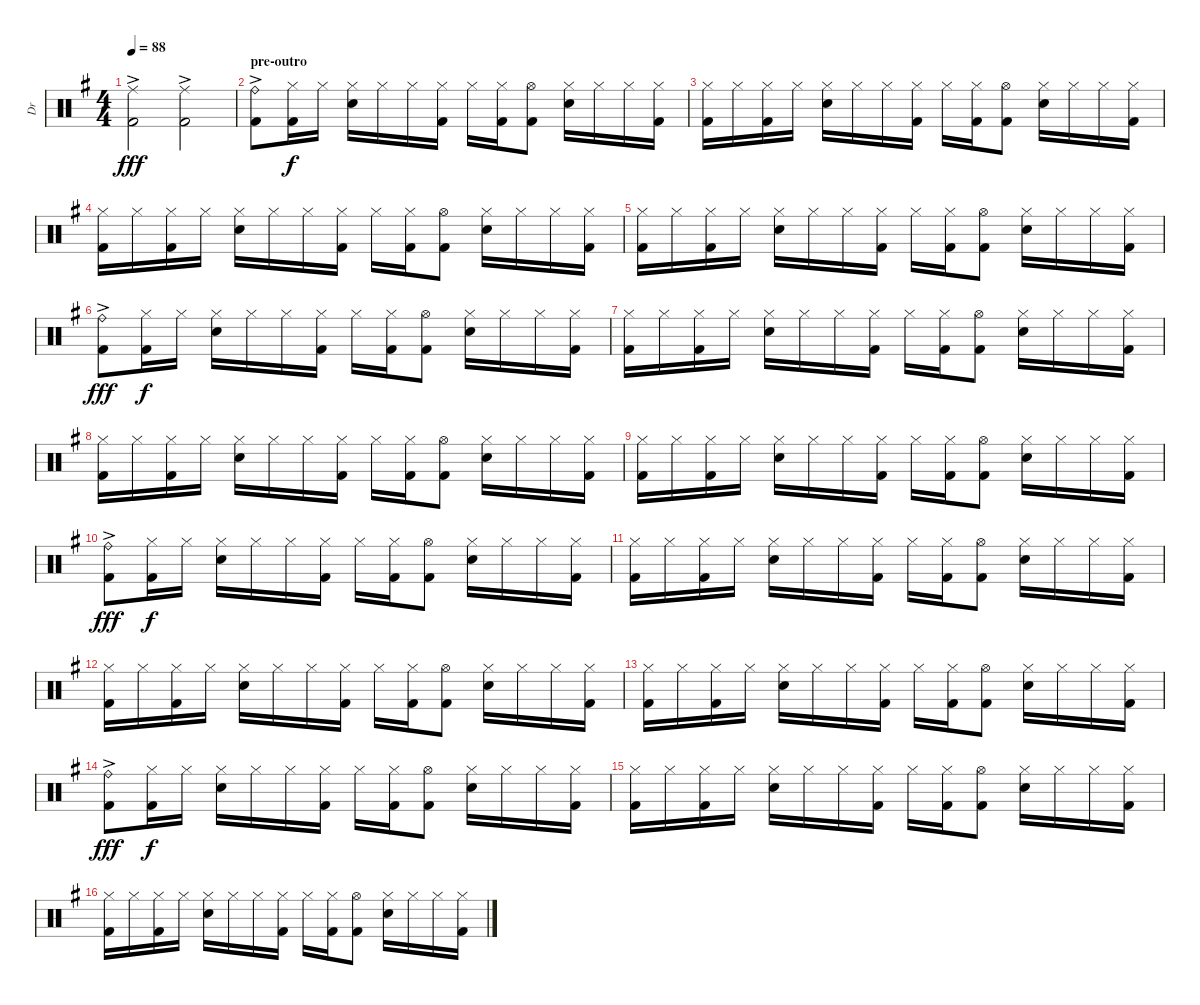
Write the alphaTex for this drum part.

\track ("Dr" "Dr") {instrument percussion}
\staff {score}
\articulation defaults
\ts (4 4)
\tempo 88
\clef neutral
\ks g
("Ride (middle)"{ac} "Kick (hit) 2"{ac}).2{dy fff} ("Ride (middle)"{ac} "Kick (hit) 2"{ac}).2 |
\section ("" "pre-outro")
("Ride (bell)"{ac} "Kick (hit) 2"{ac}).8 ("Hi-Hat (closed)" "Kick (hit) 2").16{dy f} "Hi-Hat (closed)".16 ("Hi-Hat (closed)" "Electric Snare (hit)").16 "Hi-Hat (closed)".16 "Hi-Hat (closed)".16 ("Hi-Hat (closed)" "Kick (hit) 2").16 "Hi-Hat (closed)".16 ("Hi-Hat (closed)" "Kick (hit) 2").16 ("Hi-Hat (open)" "Kick (hit) 2").8 ("Hi-Hat (closed)" "Electric Snare (hit)").16 "Hi-Hat (closed)".16 "Hi-Hat (closed)".16 ("Hi-Hat (closed)" "Kick (hit) 2").16 |
("Hi-Hat (closed)" "Kick (hit) 2").16 "Hi-Hat (closed)".16 ("Hi-Hat (closed)" "Kick (hit) 2").16 "Hi-Hat (closed)".16 ("Hi-Hat (closed)" "Electric Snare (hit)").16 "Hi-Hat (closed)".16 "Hi-Hat (closed)".16 ("Hi-Hat (closed)" "Kick (hit) 2").16 "Hi-Hat (closed)".16 ("Hi-Hat (closed)" "Kick (hit) 2").16 ("Hi-Hat (open)" "Kick (hit) 2").8 ("Hi-Hat (closed)" "Electric Snare (hit)").16 "Hi-Hat (closed)".16 "Hi-Hat (closed)".16 ("Hi-Hat (closed)" "Kick (hit) 2").16 |
("Hi-Hat (closed)" "Kick (hit) 2").16 "Hi-Hat (closed)".16 ("Hi-Hat (closed)" "Kick (hit) 2").16 "Hi-Hat (closed)".16 ("Hi-Hat (closed)" "Electric Snare (hit)").16 "Hi-Hat (closed)".16 "Hi-Hat (closed)".16 ("Hi-Hat (closed)" "Kick (hit) 2").16 "Hi-Hat (closed)".16 ("Hi-Hat (closed)" "Kick (hit) 2").16 ("Hi-Hat (open)" "Kick (hit) 2").8 ("Hi-Hat (closed)" "Electric Snare (hit)").16 "Hi-Hat (closed)".16 "Hi-Hat (closed)".16 ("Hi-Hat (closed)" "Kick (hit) 2").16 |
("Hi-Hat (closed)" "Kick (hit) 2").16 "Hi-Hat (closed)".16 ("Hi-Hat (closed)" "Kick (hit) 2").16 "Hi-Hat (closed)".16 ("Hi-Hat (closed)" "Electric Snare (hit)").16 "Hi-Hat (closed)".16 "Hi-Hat (closed)".16 ("Hi-Hat (closed)" "Kick (hit) 2").16 "Hi-Hat (closed)".16 ("Hi-Hat (closed)" "Kick (hit) 2").16 ("Hi-Hat (open)" "Kick (hit) 2").8 ("Hi-Hat (closed)" "Electric Snare (hit)").16 "Hi-Hat (closed)".16 "Hi-Hat (closed)".16 ("Hi-Hat (closed)" "Kick (hit) 2").16 |
("Ride (bell)"{ac} "Kick (hit) 2"{ac}).8{dy fff} ("Hi-Hat (closed)" "Kick (hit) 2").16{dy f} "Hi-Hat (closed)".16 ("Hi-Hat (closed)" "Electric Snare (hit)").16 "Hi-Hat (closed)".16 "Hi-Hat (closed)".16 ("Hi-Hat (closed)" "Kick (hit) 2").16 "Hi-Hat (closed)".16 ("Hi-Hat (closed)" "Kick (hit) 2").16 ("Hi-Hat (open)" "Kick (hit) 2").8 ("Hi-Hat (closed)" "Electric Snare (hit)").16 "Hi-Hat (closed)".16 "Hi-Hat (closed)".16 ("Hi-Hat (closed)" "Kick (hit) 2").16 |
("Hi-Hat (closed)" "Kick (hit) 2").16 "Hi-Hat (closed)".16 ("Hi-Hat (closed)" "Kick (hit) 2").16 "Hi-Hat (closed)".16 ("Hi-Hat (closed)" "Electric Snare (hit)").16 "Hi-Hat (closed)".16 "Hi-Hat (closed)".16 ("Hi-Hat (closed)" "Kick (hit) 2").16 "Hi-Hat (closed)".16 ("Hi-Hat (closed)" "Kick (hit) 2").16 ("Hi-Hat (open)" "Kick (hit) 2").8 ("Hi-Hat (closed)" "Electric Snare (hit)").16 "Hi-Hat (closed)".16 "Hi-Hat (closed)".16 ("Hi-Hat (closed)" "Kick (hit) 2").16 |
("Hi-Hat (closed)" "Kick (hit) 2").16 "Hi-Hat (closed)".16 ("Hi-Hat (closed)" "Kick (hit) 2").16 "Hi-Hat (closed)".16 ("Hi-Hat (closed)" "Electric Snare (hit)").16 "Hi-Hat (closed)".16 "Hi-Hat (closed)".16 ("Hi-Hat (closed)" "Kick (hit) 2").16 "Hi-Hat (closed)".16 ("Hi-Hat (closed)" "Kick (hit) 2").16 ("Hi-Hat (open)" "Kick (hit) 2").8 ("Hi-Hat (closed)" "Electric Snare (hit)").16 "Hi-Hat (closed)".16 "Hi-Hat (closed)".16 ("Hi-Hat (closed)" "Kick (hit) 2").16 |
("Hi-Hat (closed)" "Kick (hit) 2").16 "Hi-Hat (closed)".16 ("Hi-Hat (closed)" "Kick (hit) 2").16 "Hi-Hat (closed)".16 ("Hi-Hat (closed)" "Electric Snare (hit)").16 "Hi-Hat (closed)".16 "Hi-Hat (closed)".16 ("Hi-Hat (closed)" "Kick (hit) 2").16 "Hi-Hat (closed)".16 ("Hi-Hat (closed)" "Kick (hit) 2").16 ("Hi-Hat (open)" "Kick (hit) 2").8 ("Hi-Hat (closed)" "Electric Snare (hit)").16 "Hi-Hat (closed)".16 "Hi-Hat (closed)".16 ("Hi-Hat (closed)" "Kick (hit) 2").16 |
("Ride (bell)"{ac} "Kick (hit) 2"{ac}).8{dy fff} ("Hi-Hat (closed)" "Kick (hit) 2").16{dy f} "Hi-Hat (closed)".16 ("Hi-Hat (closed)" "Electric Snare (hit)").16 "Hi-Hat (closed)".16 "Hi-Hat (closed)".16 ("Hi-Hat (closed)" "Kick (hit) 2").16 "Hi-Hat (closed)".16 ("Hi-Hat (closed)" "Kick (hit) 2").16 ("Hi-Hat (open)" "Kick (hit) 2").8 ("Hi-Hat (closed)" "Electric Snare (hit)").16 "Hi-Hat (closed)".16 "Hi-Hat (closed)".16 ("Hi-Hat (closed)" "Kick (hit) 2").16 |
("Hi-Hat (closed)" "Kick (hit) 2").16 "Hi-Hat (closed)".16 ("Hi-Hat (closed)" "Kick (hit) 2").16 "Hi-Hat (closed)".16 ("Hi-Hat (closed)" "Electric Snare (hit)").16 "Hi-Hat (closed)".16 "Hi-Hat (closed)".16 ("Hi-Hat (closed)" "Kick (hit) 2").16 "Hi-Hat (closed)".16 ("Hi-Hat (closed)" "Kick (hit) 2").16 ("Hi-Hat (open)" "Kick (hit) 2").8 ("Hi-Hat (closed)" "Electric Snare (hit)").16 "Hi-Hat (closed)".16 "Hi-Hat (closed)".16 ("Hi-Hat (closed)" "Kick (hit) 2").16 |
("Hi-Hat (closed)" "Kick (hit) 2").16 "Hi-Hat (closed)".16 ("Hi-Hat (closed)" "Kick (hit) 2").16 "Hi-Hat (closed)".16 ("Hi-Hat (closed)" "Electric Snare (hit)").16 "Hi-Hat (closed)".16 "Hi-Hat (closed)".16 ("Hi-Hat (closed)" "Kick (hit) 2").16 "Hi-Hat (closed)".16 ("Hi-Hat (closed)" "Kick (hit) 2").16 ("Hi-Hat (open)" "Kick (hit) 2").8 ("Hi-Hat (closed)" "Electric Snare (hit)").16 "Hi-Hat (closed)".16 "Hi-Hat (closed)".16 ("Hi-Hat (closed)" "Kick (hit) 2").16 |
("Hi-Hat (closed)" "Kick (hit) 2").16 "Hi-Hat (closed)".16 ("Hi-Hat (closed)" "Kick (hit) 2").16 "Hi-Hat (closed)".16 ("Hi-Hat (closed)" "Electric Snare (hit)").16 "Hi-Hat (closed)".16 "Hi-Hat (closed)".16 ("Hi-Hat (closed)" "Kick (hit) 2").16 "Hi-Hat (closed)".16 ("Hi-Hat (closed)" "Kick (hit) 2").16 ("Hi-Hat (open)" "Kick (hit) 2").8 ("Hi-Hat (closed)" "Electric Snare (hit)").16 "Hi-Hat (closed)".16 "Hi-Hat (closed)".16 ("Hi-Hat (closed)" "Kick (hit) 2").16 |
("Ride (bell)"{ac} "Kick (hit) 2"{ac}).8{dy fff} ("Hi-Hat (closed)" "Kick (hit) 2").16{dy f} "Hi-Hat (closed)".16 ("Hi-Hat (closed)" "Electric Snare (hit)").16 "Hi-Hat (closed)".16 "Hi-Hat (closed)".16 ("Hi-Hat (closed)" "Kick (hit) 2").16 "Hi-Hat (closed)".16 ("Hi-Hat (closed)" "Kick (hit) 2").16 ("Hi-Hat (open)" "Kick (hit) 2").8 ("Hi-Hat (closed)" "Electric Snare (hit)").16 "Hi-Hat (closed)".16 "Hi-Hat (closed)".16 ("Hi-Hat (closed)" "Kick (hit) 2").16 |
("Hi-Hat (closed)" "Kick (hit) 2").16 "Hi-Hat (closed)".16 ("Hi-Hat (closed)" "Kick (hit) 2").16 "Hi-Hat (closed)".16 ("Hi-Hat (closed)" "Electric Snare (hit)").16 "Hi-Hat (closed)".16 "Hi-Hat (closed)".16 ("Hi-Hat (closed)" "Kick (hit) 2").16 "Hi-Hat (closed)".16 ("Hi-Hat (closed)" "Kick (hit) 2").16 ("Hi-Hat (open)" "Kick (hit) 2").8 ("Hi-Hat (closed)" "Electric Snare (hit)").16 "Hi-Hat (closed)".16 "Hi-Hat (closed)".16 ("Hi-Hat (closed)" "Kick (hit) 2").16 |
("Hi-Hat (closed)" "Kick (hit) 2").16 "Hi-Hat (closed)".16 ("Hi-Hat (closed)" "Kick (hit) 2").16 "Hi-Hat (closed)".16 ("Hi-Hat (closed)" "Electric Snare (hit)").16 "Hi-Hat (closed)".16 "Hi-Hat (closed)".16 ("Hi-Hat (closed)" "Kick (hit) 2").16 "Hi-Hat (closed)".16 ("Hi-Hat (closed)" "Kick (hit) 2").16 ("Hi-Hat (open)" "Kick (hit) 2").8 ("Hi-Hat (closed)" "Electric Snare (hit)").16 "Hi-Hat (closed)".16 "Hi-Hat (closed)".16 ("Hi-Hat (closed)" "Kick (hit) 2").16
